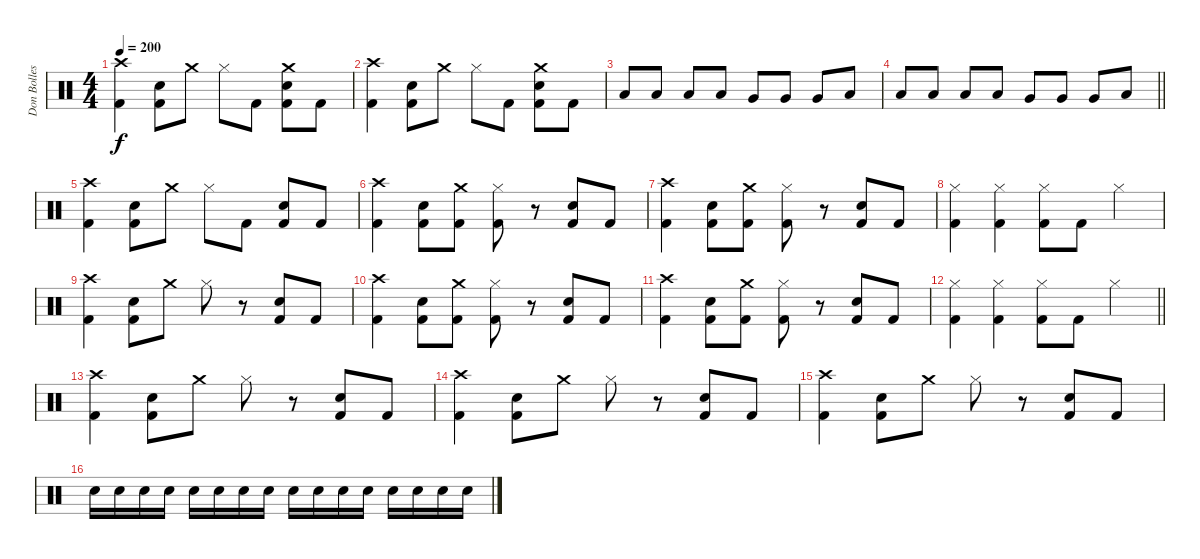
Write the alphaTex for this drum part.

\track ("Don Bolles" "Don Bolles") {instrument percussion}
\staff {score}
\articulation defaults
\ts (4 4)
\tempo 200
\clef neutral
\ks c
("Kick (hit) 2" "Crash high (hit)").4{dy f} ("Snare (hit) 2" "Kick (hit) 2").8 "Crash medium (hit)".8 "Hi-Hat (closed)".8 "Kick (hit) 2".8 ("Kick (hit) 2" "Snare (hit) 2" "Crash medium (hit)").8 "Kick (hit) 2".8 |
("Kick (hit) 2" "Crash high (hit)").4 ("Snare (hit) 2" "Kick (hit) 2").8 "Crash medium (hit)".8 "Hi-Hat (closed)".8 "Kick (hit) 2".8 ("Kick (hit) 2" "Snare (hit) 2" "Crash medium (hit)").8 "Kick (hit) 2".8 |
"Low Floor Tom (hit)".8 "Low Floor Tom (hit)".8 "Low Floor Tom (hit)".8 "Low Floor Tom (hit)".8 "Very Low Tom (hit)".8 "Very Low Tom (hit)".8 "Very Low Tom (hit)".8 "Low Floor Tom (hit)".8 |
\barLineRight lightlight "Low Floor Tom (hit)".8 "Low Floor Tom (hit)".8 "Low Floor Tom (hit)".8 "Low Floor Tom (hit)".8 "Very Low Tom (hit)".8 "Very Low Tom (hit)".8 "Very Low Tom (hit)".8 "Low Floor Tom (hit)".8
|
("Kick (hit) 2" "Crash high (hit)").4 ("Snare (hit) 2" "Kick (hit) 2").8 "Crash medium (hit)".8 "Hi-Hat (closed)".8 "Kick (hit) 2".8 ("Kick (hit) 2" "Snare (hit) 2").8 "Kick (hit) 2".8 |
("Kick (hit) 2" "Crash high (hit)").4 ("Snare (hit) 2" "Kick (hit) 2").8 ("Kick (hit) 2" "Crash medium (hit)").8 ("Kick (hit) 2" "Hi-Hat (closed)").8 r.8 ("Kick (hit) 2" "Snare (hit) 2").8 "Kick (hit) 2".8 |
("Kick (hit) 2" "Crash high (hit)").4 ("Snare (hit) 2" "Kick (hit) 2").8 ("Kick (hit) 2" "Crash medium (hit)").8 ("Kick (hit) 2" "Hi-Hat (closed)").8 r.8 ("Kick (hit) 2" "Snare (hit) 2").8 "Kick (hit) 2".8 |
("Kick (hit) 2" "Hi-Hat (closed)").4 ("Kick (hit) 2" "Hi-Hat (closed)").4 ("Kick (hit) 2" "Hi-Hat (closed)").8 "Kick (hit) 2".8 "Hi-Hat (closed)".4 |
("Kick (hit) 2" "Crash high (hit)").4 ("Snare (hit) 2" "Kick (hit) 2").8 "Crash medium (hit)".8 "Hi-Hat (closed)".8 r.8 ("Kick (hit) 2" "Snare (hit) 2").8 "Kick (hit) 2".8 |
("Kick (hit) 2" "Crash high (hit)").4 ("Snare (hit) 2" "Kick (hit) 2").8 ("Kick (hit) 2" "Crash medium (hit)").8 ("Kick (hit) 2" "Hi-Hat (closed)").8 r.8 ("Kick (hit) 2" "Snare (hit) 2").8 "Kick (hit) 2".8 |
("Kick (hit) 2" "Crash high (hit)").4 ("Snare (hit) 2" "Kick (hit) 2").8 ("Kick (hit) 2" "Crash medium (hit)").8 ("Kick (hit) 2" "Hi-Hat (closed)").8 r.8 ("Kick (hit) 2" "Snare (hit) 2").8 "Kick (hit) 2".8 |
\barLineRight lightlight
("Kick (hit) 2" "Hi-Hat (closed)").4 ("Kick (hit) 2" "Hi-Hat (closed)").4 ("Kick (hit) 2" "Hi-Hat (closed)").8 "Kick (hit) 2".8 "Hi-Hat (closed)".4 |
("Kick (hit) 2" "Crash high (hit)").4 ("Snare (hit) 2" "Kick (hit) 2").8 "Crash medium (hit)".8 "Hi-Hat (closed)".8 r.8 ("Kick (hit) 2" "Snare (hit) 2").8 "Kick (hit) 2".8 |
("Kick (hit) 2" "Crash high (hit)").4 ("Snare (hit) 2" "Kick (hit) 2").8 "Crash medium (hit)".8 "Hi-Hat (closed)".8 r.8 ("Kick (hit) 2" "Snare (hit) 2").8 "Kick (hit) 2".8 |
("Kick (hit) 2" "Crash high (hit)").4 ("Snare (hit) 2" "Kick (hit) 2").8 "Crash medium (hit)".8 "Hi-Hat (closed)".8 r.8 ("Kick (hit) 2" "Snare (hit) 2").8 "Kick (hit) 2".8 |
"Snare (hit) 2".16 "Snare (hit) 2".16 "Snare (hit) 2".16 "Snare (hit) 2".16 "Snare (hit) 2".16 "Snare (hit) 2".16 "Snare (hit) 2".16 "Snare (hit) 2".16 "Snare (hit) 2".16 "Snare (hit) 2".16 "Snare (hit) 2".16 "Snare (hit) 2".16 "Snare (hit) 2".16 "Snare (hit) 2".16 "Snare (hit) 2".16 "Snare (hit) 2".16
